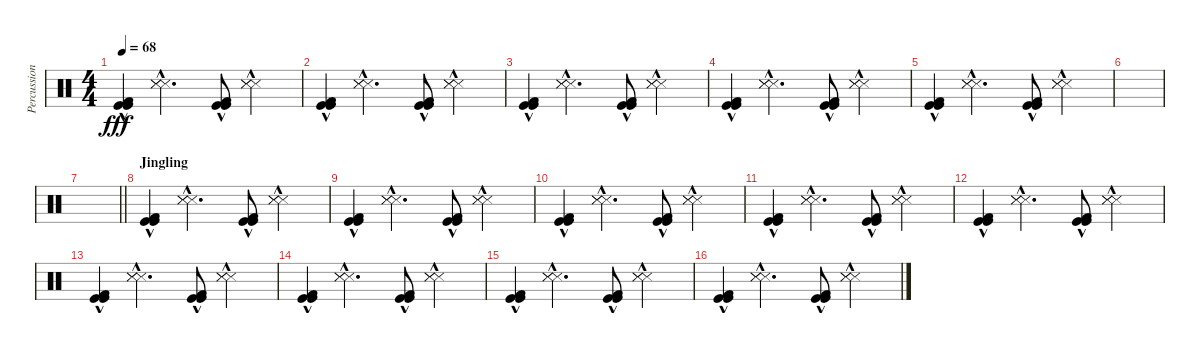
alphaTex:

\track ("Percussion (Drums)" "Percussion") {instrument percussion}
\staff {score}
\articulation defaults
\ts (4 4)
\tempo 68
\clef neutral
\ks c
("Kick (hit)"{hac} "Kick (hit) 2"{hac} "Kick (hit)"{hac}).4{dy fff} ("Snare (side stick) 3"{hac} "Snare (side stick) 3"{hac} "Snare (side stick) 3"{hac}).4{d} ("Kick (hit)"{hac} "Kick (hit) 2"{hac} "Kick (hit)"{hac}).8 ("Snare (side stick) 3"{hac} "Snare (side stick) 3"{hac} "Snare (side stick) 3"{hac}).4 |
("Kick (hit)"{hac} "Kick (hit) 2"{hac} "Kick (hit)"{hac}).4 ("Snare (side stick) 3"{hac} "Snare (side stick) 3"{hac} "Snare (side stick) 3"{hac}).4{d} ("Kick (hit)"{hac} "Kick (hit) 2"{hac} "Kick (hit)"{hac}).8 ("Snare (side stick) 3"{hac} "Snare (side stick) 3"{hac} "Snare (side stick) 3"{hac}).4 |
("Kick (hit)"{hac} "Kick (hit) 2"{hac} "Kick (hit)"{hac}).4 ("Snare (side stick) 3"{hac} "Snare (side stick) 3"{hac} "Snare (side stick) 3"{hac}).4{d} ("Kick (hit)"{hac} "Kick (hit) 2"{hac} "Kick (hit)"{hac}).8 ("Snare (side stick) 3"{hac} "Snare (side stick) 3"{hac} "Snare (side stick) 3"{hac}).4 |
("Kick (hit)"{hac} "Kick (hit) 2"{hac} "Kick (hit)"{hac}).4 ("Snare (side stick) 3"{hac} "Snare (side stick) 3"{hac} "Snare (side stick) 3"{hac}).4{d} ("Kick (hit)"{hac} "Kick (hit) 2"{hac} "Kick (hit)"{hac}).8 ("Snare (side stick) 3"{hac} "Snare (side stick) 3"{hac} "Snare (side stick) 3"{hac}).4 |
("Kick (hit)"{hac} "Kick (hit) 2"{hac} "Kick (hit)"{hac}).4 ("Snare (side stick) 3"{hac} "Snare (side stick) 3"{hac} "Snare (side stick) 3"{hac}).4{d} ("Kick (hit)"{hac} "Kick (hit) 2"{hac} "Kick (hit)"{hac}).8 ("Snare (side stick) 3"{hac} "Snare (side stick) 3"{hac} "Snare (side stick) 3"{hac}).4 |
|
\barLineRight lightlight
|
\section ("" "Jingling")
("Kick (hit)"{hac} "Kick (hit) 2"{hac} "Kick (hit)"{hac}).4 ("Snare (side stick) 3"{hac} "Snare (side stick) 3"{hac} "Snare (side stick) 3"{hac}).4{d} ("Kick (hit)"{hac} "Kick (hit) 2"{hac} "Kick (hit)"{hac}).8 ("Snare (side stick) 3"{hac} "Snare (side stick) 3"{hac} "Snare (side stick) 3"{hac}).4 |
("Kick (hit)"{hac} "Kick (hit) 2"{hac} "Kick (hit)"{hac}).4 ("Snare (side stick) 3"{hac} "Snare (side stick) 3"{hac} "Snare (side stick) 3"{hac}).4{d} ("Kick (hit)"{hac} "Kick (hit) 2"{hac} "Kick (hit)"{hac}).8 ("Snare (side stick) 3"{hac} "Snare (side stick) 3"{hac} "Snare (side stick) 3"{hac}).4 |
("Kick (hit)"{hac} "Kick (hit) 2"{hac} "Kick (hit)"{hac}).4 ("Snare (side stick) 3"{hac} "Snare (side stick) 3"{hac} "Snare (side stick) 3"{hac}).4{d} ("Kick (hit)"{hac} "Kick (hit) 2"{hac} "Kick (hit)"{hac}).8 ("Snare (side stick) 3"{hac} "Snare (side stick) 3"{hac} "Snare (side stick) 3"{hac}).4 |
("Kick (hit)"{hac} "Kick (hit) 2"{hac} "Kick (hit)"{hac}).4 ("Snare (side stick) 3"{hac} "Snare (side stick) 3"{hac} "Snare (side stick) 3"{hac}).4{d} ("Kick (hit)"{hac} "Kick (hit) 2"{hac} "Kick (hit)"{hac}).8 ("Snare (side stick) 3"{hac} "Snare (side stick) 3"{hac} "Snare (side stick) 3"{hac}).4 |
("Kick (hit)"{hac} "Kick (hit) 2"{hac} "Kick (hit)"{hac}).4 ("Snare (side stick) 3"{hac} "Snare (side stick) 3"{hac} "Snare (side stick) 3"{hac}).4{d} ("Kick (hit)"{hac} "Kick (hit) 2"{hac} "Kick (hit)"{hac}).8 ("Snare (side stick) 3"{hac} "Snare (side stick) 3"{hac} "Snare (side stick) 3"{hac}).4 |
("Kick (hit)"{hac} "Kick (hit) 2"{hac} "Kick (hit)"{hac}).4 ("Snare (side stick) 3"{hac} "Snare (side stick) 3"{hac} "Snare (side stick) 3"{hac}).4{d} ("Kick (hit)"{hac} "Kick (hit) 2"{hac} "Kick (hit)"{hac}).8 ("Snare (side stick) 3"{hac} "Snare (side stick) 3"{hac} "Snare (side stick) 3"{hac}).4 |
("Kick (hit)"{hac} "Kick (hit) 2"{hac} "Kick (hit)"{hac}).4 ("Snare (side stick) 3"{hac} "Snare (side stick) 3"{hac} "Snare (side stick) 3"{hac}).4{d} ("Kick (hit)"{hac} "Kick (hit) 2"{hac} "Kick (hit)"{hac}).8 ("Snare (side stick) 3"{hac} "Snare (side stick) 3"{hac} "Snare (side stick) 3"{hac}).4 |
("Kick (hit)"{hac} "Kick (hit) 2"{hac} "Kick (hit)"{hac}).4 ("Snare (side stick) 3"{hac} "Snare (side stick) 3"{hac} "Snare (side stick) 3"{hac}).4{d} ("Kick (hit)"{hac} "Kick (hit) 2"{hac} "Kick (hit)"{hac}).8 ("Snare (side stick) 3"{hac} "Snare (side stick) 3"{hac} "Snare (side stick) 3"{hac}).4 |
("Kick (hit)"{hac} "Kick (hit) 2"{hac} "Kick (hit)"{hac}).4 ("Snare (side stick) 3"{hac} "Snare (side stick) 3"{hac} "Snare (side stick) 3"{hac}).4{d} ("Kick (hit)"{hac} "Kick (hit) 2"{hac} "Kick (hit)"{hac}).8 ("Snare (side stick) 3"{hac} "Snare (side stick) 3"{hac} "Snare (side stick) 3"{hac}).4
